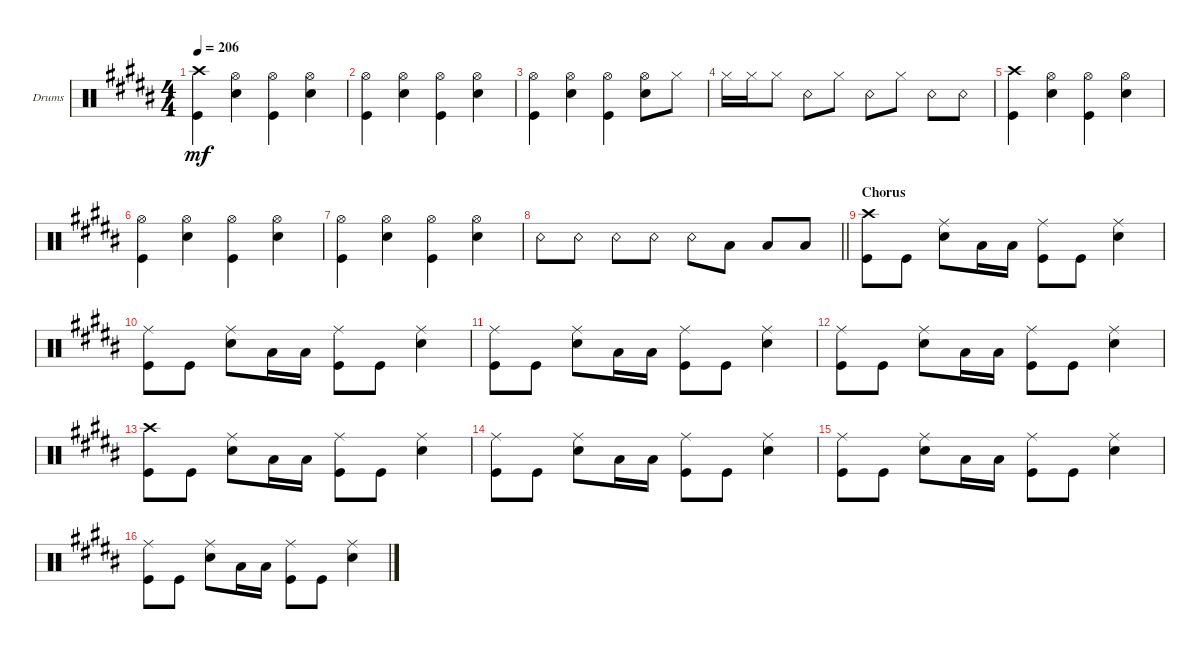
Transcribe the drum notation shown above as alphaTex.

\defaultSystemsLayout 4
\bracketExtendMode groupsimilarinstruments
\firstSystemTrackNameOrientation horizontal
\otherSystemsTrackNameOrientation horizontal
\track ("Drums" "Drums") {instrument percussion}
\staff {score}
\articulation defaults
\ts (4 4)
\tempo 206
\clef neutral
\ks b
("Kick (hit)" "Crash high (hit)").4{dy mf} ("Hi-Hat (open)" "Snare (hit) 2").4 ("Hi-Hat (open)" "Kick (hit)").4 ("Hi-Hat (open)" "Snare (hit) 2").4 |
("Hi-Hat (open)" "Kick (hit)").4 ("Hi-Hat (open)" "Snare (hit) 2").4 ("Hi-Hat (open)" "Kick (hit)").4 ("Hi-Hat (open)" "Snare (hit) 2").4 |
("Hi-Hat (open)" "Kick (hit)").4 ("Hi-Hat (open)" "Snare (hit) 2").4 ("Hi-Hat (open)" "Kick (hit)").4 ("Hi-Hat (open)" "Snare (hit) 2").8 "Hi-Hat (closed)".8 |
"Hi-Hat (closed)".16 "Hi-Hat (closed)".16 "Hi-Hat (closed)".8 "Snare (rim shot)".8 "Hi-Hat (closed)".8 "Snare (rim shot)".8 "Hi-Hat (closed)".8 "Snare (rim shot)".8 "Snare (rim shot)".8 |
("Kick (hit)" "Crash high (hit)").4 ("Hi-Hat (open)" "Snare (hit) 2").4 ("Hi-Hat (open)" "Kick (hit)").4 ("Hi-Hat (open)" "Snare (hit) 2").4 |
("Hi-Hat (open)" "Kick (hit)").4 ("Hi-Hat (open)" "Snare (hit) 2").4 ("Hi-Hat (open)" "Kick (hit)").4 ("Hi-Hat (open)" "Snare (hit) 2").4 |
("Hi-Hat (open)" "Kick (hit)").4 ("Hi-Hat (open)" "Snare (hit) 2").4 ("Hi-Hat (open)" "Kick (hit)").4 ("Hi-Hat (open)" "Snare (hit) 2").4 |
\barLineRight lightlight "Snare (rim shot)".8 "Snare (rim shot)".8 "Snare (rim shot)".8 "Snare (rim shot)".8 "Snare (rim shot)".8 "Low Tom (hit)".8 "Low Tom (hit)".8 "Low Tom (hit)".8
|
\section ("" "Chorus")
("Kick (hit)" "Crash high (hit)").8 "Kick (hit)".8 ("Snare (hit) 2" "Ride (middle)").8 "Low Tom (hit)".16 "Low Tom (hit)".16 ("Kick (hit)" "Ride (middle)").8 "Kick (hit)".8 ("Snare (hit) 2" "Ride (middle)").4 |
("Kick (hit)" "Ride (middle)").8 "Kick (hit)".8 ("Snare (hit) 2" "Ride (middle)").8 "Low Tom (hit)".16 "Low Tom (hit)".16 ("Kick (hit)" "Ride (middle)").8 "Kick (hit)".8 ("Snare (hit) 2" "Ride (middle)").4 |
("Kick (hit)" "Ride (middle)").8 "Kick (hit)".8 ("Snare (hit) 2" "Ride (middle)").8 "Low Tom (hit)".16 "Low Tom (hit)".16 ("Kick (hit)" "Ride (middle)").8 "Kick (hit)".8 ("Snare (hit) 2" "Ride (middle)").4 |
("Kick (hit)" "Ride (middle)").8 "Kick (hit)".8 ("Snare (hit) 2" "Ride (middle)").8 "Low Tom (hit)".16 "Low Tom (hit)".16 ("Kick (hit)" "Ride (middle)").8 "Kick (hit)".8 ("Snare (hit) 2" "Ride (middle)").4 |
("Kick (hit)" "Crash high (hit)").8 "Kick (hit)".8 ("Snare (hit) 2" "Ride (middle)").8 "Low Tom (hit)".16 "Low Tom (hit)".16 ("Kick (hit)" "Ride (middle)").8 "Kick (hit)".8 ("Snare (hit) 2" "Ride (middle)").4 |
("Kick (hit)" "Ride (middle)").8 "Kick (hit)".8 ("Snare (hit) 2" "Ride (middle)").8 "Low Tom (hit)".16 "Low Tom (hit)".16 ("Kick (hit)" "Ride (middle)").8 "Kick (hit)".8 ("Snare (hit) 2" "Ride (middle)").4 |
("Kick (hit)" "Ride (middle)").8 "Kick (hit)".8 ("Snare (hit) 2" "Ride (middle)").8 "Low Tom (hit)".16 "Low Tom (hit)".16 ("Kick (hit)" "Ride (middle)").8 "Kick (hit)".8 ("Snare (hit) 2" "Ride (middle)").4 |
("Kick (hit)" "Ride (middle)").8 "Kick (hit)".8 ("Snare (hit) 2" "Ride (middle)").8 "Low Tom (hit)".16 "Low Tom (hit)".16 ("Kick (hit)" "Ride (middle)").8 "Kick (hit)".8 ("Snare (hit) 2" "Ride (middle)").4
